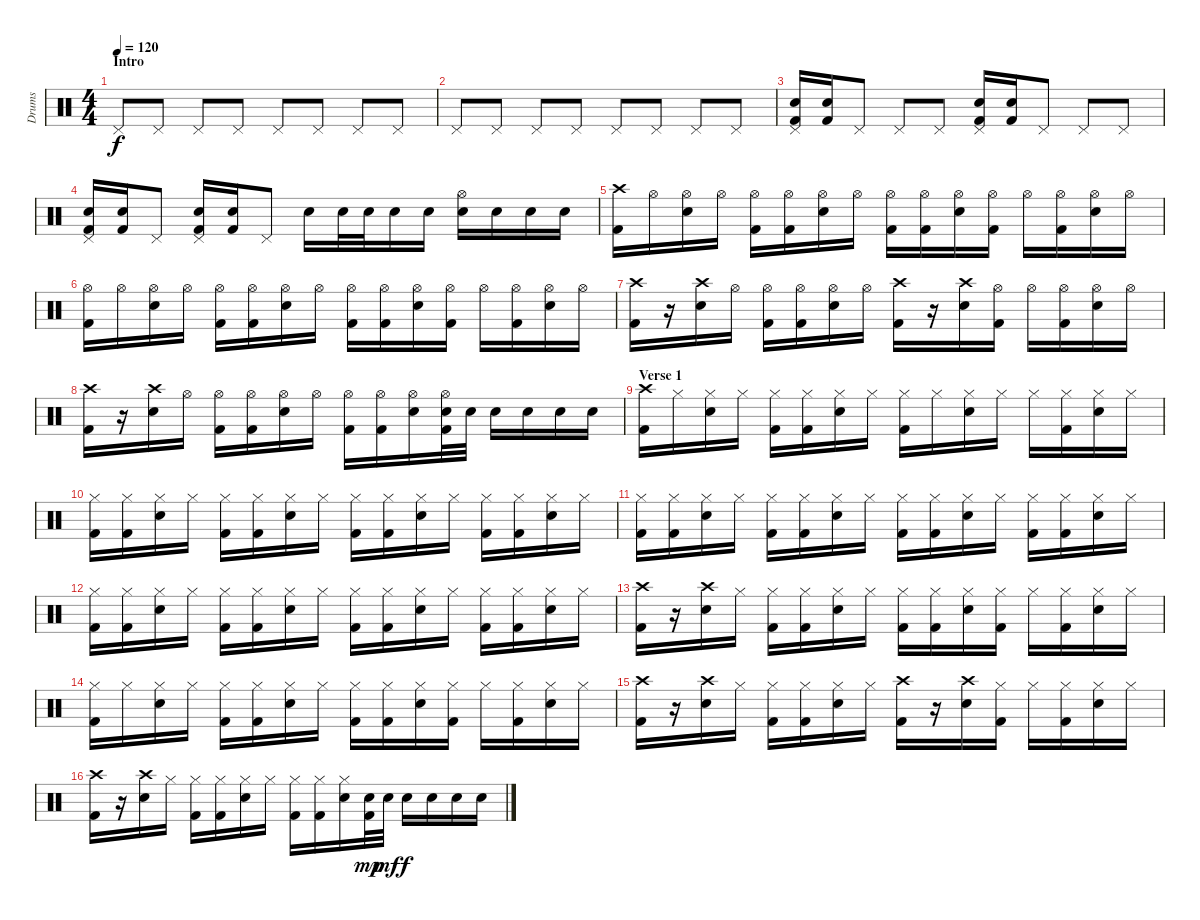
\track ("Drums" "Drums") {instrument percussion}
\staff {score}
\articulation defaults
\ts (4 4)
\section ("" "Intro")
\tempo 120
\clef neutral
\ks c "Pedal Hi-Hat (hit)".8{dy f} "Pedal Hi-Hat (hit)".8 "Pedal Hi-Hat (hit)".8 "Pedal Hi-Hat (hit)".8 "Pedal Hi-Hat (hit)".8 "Pedal Hi-Hat (hit)".8 "Pedal Hi-Hat (hit)".8 "Pedal Hi-Hat (hit)".8
|
"Pedal Hi-Hat (hit)".8 "Pedal Hi-Hat (hit)".8 "Pedal Hi-Hat (hit)".8 "Pedal Hi-Hat (hit)".8 "Pedal Hi-Hat (hit)".8 "Pedal Hi-Hat (hit)".8 "Pedal Hi-Hat (hit)".8 "Pedal Hi-Hat (hit)".8 |
("Pedal Hi-Hat (hit)" "Electric Snare (hit)" "Kick (hit) 2").16 ("Electric Snare (hit)" "Kick (hit) 2").16 "Pedal Hi-Hat (hit)".8 "Pedal Hi-Hat (hit)".8 "Pedal Hi-Hat (hit)".8 ("Pedal Hi-Hat (hit)" "Electric Snare (hit)" "Kick (hit) 2").16 ("Electric Snare (hit)" "Kick (hit) 2").16 "Pedal Hi-Hat (hit)".8 "Pedal Hi-Hat (hit)".8 "Pedal Hi-Hat (hit)".8 |
("Pedal Hi-Hat (hit)" "Electric Snare (hit)" "Kick (hit) 2").16 ("Electric Snare (hit)" "Kick (hit) 2").16 "Pedal Hi-Hat (hit)".8 ("Pedal Hi-Hat (hit)" "Electric Snare (hit)" "Kick (hit) 2").16 ("Electric Snare (hit)" "Kick (hit) 2").16 "Pedal Hi-Hat (hit)".8 "Electric Snare (hit)".16 "Electric Snare (hit)".32 "Electric Snare (hit)".32 "Electric Snare (hit)".16 "Electric Snare (hit)".16 ("Hi-Hat (open)" "Electric Snare (hit)").16 "Electric Snare (hit)".16 "Electric Snare (hit)".16 "Electric Snare (hit)".16 |
("Crash high (hit)" "Kick (hit) 2").16 "Hi-Hat (open)".16 ("Hi-Hat (open)" "Electric Snare (hit)").16 "Hi-Hat (open)".16 ("Hi-Hat (open)" "Kick (hit) 2").16 ("Hi-Hat (open)" "Kick (hit) 2").16 ("Hi-Hat (open)" "Electric Snare (hit)").16 "Hi-Hat (open)".16 ("Hi-Hat (open)" "Kick (hit) 2").16 ("Hi-Hat (open)" "Kick (hit) 2").16 ("Hi-Hat (open)" "Electric Snare (hit)").16 ("Hi-Hat (open)" "Kick (hit) 2").16 "Hi-Hat (open)".16 ("Hi-Hat (open)" "Kick (hit) 2").16 ("Hi-Hat (open)" "Electric Snare (hit)").16 "Hi-Hat (open)".16 |
("Hi-Hat (open)" "Kick (hit) 2").16 "Hi-Hat (open)".16 ("Hi-Hat (open)" "Electric Snare (hit)").16 "Hi-Hat (open)".16 ("Hi-Hat (open)" "Kick (hit) 2").16 ("Hi-Hat (open)" "Kick (hit) 2").16 ("Hi-Hat (open)" "Electric Snare (hit)").16 "Hi-Hat (open)".16 ("Hi-Hat (open)" "Kick (hit) 2").16 ("Hi-Hat (open)" "Kick (hit) 2").16 ("Hi-Hat (open)" "Electric Snare (hit)").16 ("Hi-Hat (open)" "Kick (hit) 2").16 "Hi-Hat (open)".16 ("Hi-Hat (open)" "Kick (hit) 2").16 ("Hi-Hat (open)" "Electric Snare (hit)").16 "Hi-Hat (open)".16 |
("Crash high (hit)" "Kick (hit) 2").16 r.16 ("Crash high (hit)" "Electric Snare (hit)").16 "Hi-Hat (open)".16 ("Hi-Hat (open)" "Kick (hit) 2").16 ("Hi-Hat (open)" "Kick (hit) 2").16 ("Hi-Hat (open)" "Electric Snare (hit)").16 "Hi-Hat (open)".16 ("Crash high (hit)" "Kick (hit) 2").16 r.16 ("Crash high (hit)" "Electric Snare (hit)").16 ("Hi-Hat (open)" "Kick (hit) 2").16 "Hi-Hat (open)".16 ("Hi-Hat (open)" "Kick (hit) 2").16 ("Hi-Hat (open)" "Electric Snare (hit)").16 "Hi-Hat (open)".16 |
("Crash high (hit)" "Kick (hit) 2").16 r.16 ("Crash high (hit)" "Electric Snare (hit)").16 "Hi-Hat (open)".16 ("Hi-Hat (open)" "Kick (hit) 2").16 ("Hi-Hat (open)" "Kick (hit) 2").16 ("Hi-Hat (open)" "Electric Snare (hit)").16 "Hi-Hat (open)".16 ("Hi-Hat (open)" "Kick (hit) 2").16 ("Hi-Hat (open)" "Kick (hit) 2").16 ("Hi-Hat (open)" "Electric Snare (hit)").16 ("Hi-Hat (open)" "Electric Snare (hit)" "Kick (hit) 2").32 "Electric Snare (hit)".32 "Electric Snare (hit)".16 "Electric Snare (hit)".16 "Electric Snare (hit)".16 "Electric Snare (hit)".16 |
\section ("" "Verse 1")
("Crash high (hit)" "Kick (hit) 2").16 "Hi-Hat (closed)".16 ("Hi-Hat (closed)" "Electric Snare (hit)").16 "Hi-Hat (closed)".16 ("Hi-Hat (closed)" "Kick (hit) 2").16 ("Hi-Hat (closed)" "Kick (hit) 2").16 ("Hi-Hat (closed)" "Electric Snare (hit)").16 "Hi-Hat (closed)".16 ("Hi-Hat (closed)" "Kick (hit) 2").16 "Hi-Hat (closed)".16 ("Hi-Hat (closed)" "Electric Snare (hit)").16 "Hi-Hat (closed)".16 "Hi-Hat (closed)".16 ("Hi-Hat (closed)" "Kick (hit) 2").16 ("Hi-Hat (closed)" "Electric Snare (hit)").16 "Hi-Hat (closed)".16 |
("Hi-Hat (closed)" "Kick (hit) 2").16 ("Hi-Hat (closed)" "Kick (hit) 2").16 ("Hi-Hat (closed)" "Electric Snare (hit)").16 "Hi-Hat (closed)".16 ("Hi-Hat (closed)" "Kick (hit) 2").16 ("Hi-Hat (closed)" "Kick (hit) 2").16 ("Hi-Hat (closed)" "Electric Snare (hit)").16 "Hi-Hat (closed)".16 ("Hi-Hat (closed)" "Kick (hit) 2").16 ("Hi-Hat (closed)" "Kick (hit) 2").16 ("Hi-Hat (closed)" "Electric Snare (hit)").16 "Hi-Hat (closed)".16 ("Hi-Hat (closed)" "Kick (hit) 2").16 ("Hi-Hat (closed)" "Kick (hit) 2").16 ("Hi-Hat (closed)" "Electric Snare (hit)").16 "Hi-Hat (closed)".16 |
("Hi-Hat (closed)" "Kick (hit) 2").16 ("Hi-Hat (closed)" "Kick (hit) 2").16 ("Hi-Hat (closed)" "Electric Snare (hit)").16 "Hi-Hat (closed)".16 ("Hi-Hat (closed)" "Kick (hit) 2").16 ("Hi-Hat (closed)" "Kick (hit) 2").16 ("Hi-Hat (closed)" "Electric Snare (hit)").16 "Hi-Hat (closed)".16 ("Hi-Hat (closed)" "Kick (hit) 2").16 ("Hi-Hat (closed)" "Kick (hit) 2").16 ("Hi-Hat (closed)" "Electric Snare (hit)").16 "Hi-Hat (closed)".16 ("Hi-Hat (closed)" "Kick (hit) 2").16 ("Hi-Hat (closed)" "Kick (hit) 2").16 ("Hi-Hat (closed)" "Electric Snare (hit)").16 "Hi-Hat (closed)".16 |
("Hi-Hat (closed)" "Kick (hit) 2").16 ("Hi-Hat (closed)" "Kick (hit) 2").16 ("Hi-Hat (closed)" "Electric Snare (hit)").16 "Hi-Hat (closed)".16 ("Hi-Hat (closed)" "Kick (hit) 2").16 ("Hi-Hat (closed)" "Kick (hit) 2").16 ("Hi-Hat (closed)" "Electric Snare (hit)").16 "Hi-Hat (closed)".16 ("Hi-Hat (closed)" "Kick (hit) 2").16 ("Hi-Hat (closed)" "Kick (hit) 2").16 ("Hi-Hat (closed)" "Electric Snare (hit)").16 "Hi-Hat (closed)".16 ("Hi-Hat (closed)" "Kick (hit) 2").16 ("Hi-Hat (closed)" "Kick (hit) 2").16 ("Hi-Hat (closed)" "Electric Snare (hit)").16 "Hi-Hat (closed)".16 |
("Crash high (hit)" "Kick (hit) 2").16 r.16 ("Crash high (hit)" "Electric Snare (hit)").16 "Hi-Hat (closed)".16 ("Hi-Hat (closed)" "Kick (hit) 2").16 ("Hi-Hat (closed)" "Kick (hit) 2").16 ("Hi-Hat (closed)" "Electric Snare (hit)").16 "Hi-Hat (closed)".16 ("Hi-Hat (closed)" "Kick (hit) 2").16 ("Hi-Hat (closed)" "Kick (hit) 2").16 ("Hi-Hat (closed)" "Electric Snare (hit)").16 ("Hi-Hat (closed)" "Kick (hit) 2").16 "Hi-Hat (closed)".16 ("Hi-Hat (closed)" "Kick (hit) 2").16 ("Hi-Hat (closed)" "Electric Snare (hit)").16 "Hi-Hat (closed)".16 |
("Hi-Hat (closed)" "Kick (hit) 2").16 "Hi-Hat (closed)".16 ("Hi-Hat (closed)" "Electric Snare (hit)").16 "Hi-Hat (closed)".16 ("Hi-Hat (closed)" "Kick (hit) 2").16 ("Hi-Hat (closed)" "Kick (hit) 2").16 ("Hi-Hat (closed)" "Electric Snare (hit)").16 "Hi-Hat (closed)".16 ("Hi-Hat (closed)" "Kick (hit) 2").16 ("Hi-Hat (closed)" "Kick (hit) 2").16 ("Hi-Hat (closed)" "Electric Snare (hit)").16 ("Hi-Hat (closed)" "Kick (hit) 2").16 "Hi-Hat (closed)".16 ("Hi-Hat (closed)" "Kick (hit) 2").16 ("Hi-Hat (closed)" "Electric Snare (hit)").16 "Hi-Hat (closed)".16 |
("Crash high (hit)" "Kick (hit) 2").16 r.16 ("Crash high (hit)" "Electric Snare (hit)").16 "Hi-Hat (closed)".16 ("Hi-Hat (closed)" "Kick (hit) 2").16 ("Hi-Hat (closed)" "Kick (hit) 2").16 ("Hi-Hat (closed)" "Electric Snare (hit)").16 "Hi-Hat (closed)".16 ("Crash high (hit)" "Kick (hit) 2").16 r.16 ("Crash high (hit)" "Electric Snare (hit)").16 ("Hi-Hat (closed)" "Kick (hit) 2").16 "Hi-Hat (closed)".16 ("Hi-Hat (closed)" "Kick (hit) 2").16 ("Hi-Hat (closed)" "Electric Snare (hit)").16 "Hi-Hat (closed)".16 |
("Crash high (hit)" "Kick (hit) 2").16 r.16 ("Crash high (hit)" "Electric Snare (hit)").16 "Hi-Hat (closed)".16 ("Hi-Hat (closed)" "Kick (hit) 2").16 ("Hi-Hat (closed)" "Kick (hit) 2").16 ("Hi-Hat (closed)" "Electric Snare (hit)").16 "Hi-Hat (closed)".16 ("Hi-Hat (closed)" "Kick (hit) 2").16 ("Hi-Hat (closed)" "Kick (hit) 2").16 ("Hi-Hat (closed)" "Electric Snare (hit)").16 ("Electric Snare (hit)" "Kick (hit) 2").32{dy mp} "Electric Snare (hit)".32{dy mf} "Electric Snare (hit)".16{dy f} "Electric Snare (hit)".16 "Electric Snare (hit)".16 "Electric Snare (hit)".16
